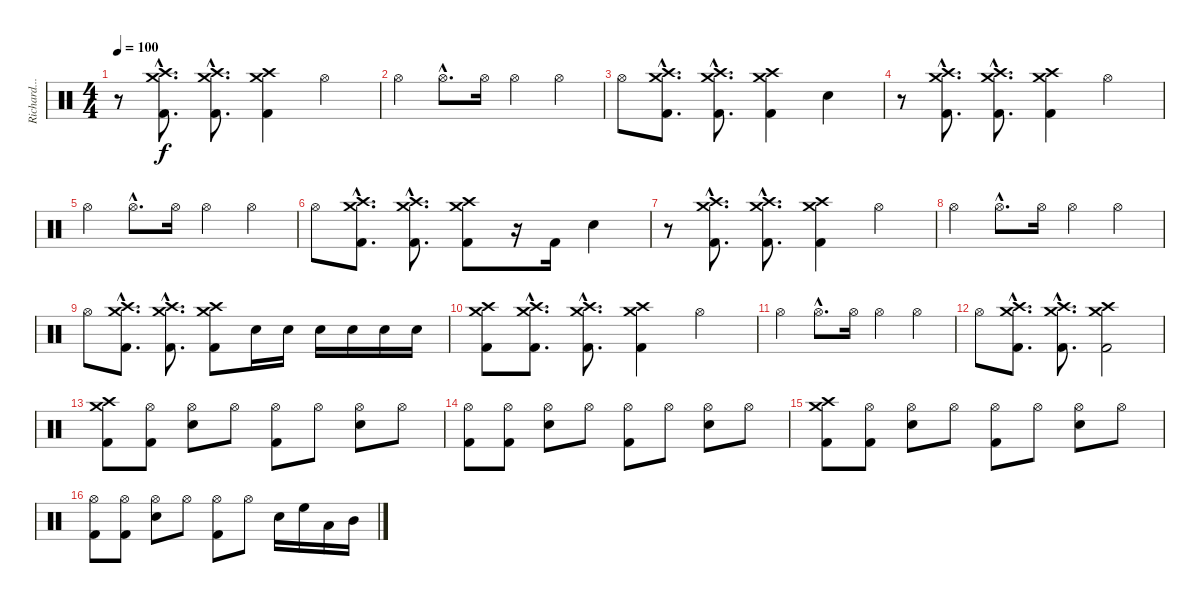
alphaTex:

\track ("Richard...clon..." "Richard...") {instrument percussion}
\staff {score}
\articulation defaults
\ts (4 4)
\tempo 100
\clef neutral
\ks c
r.8{dy f} ("Crash high (hit)"{hac} "Crash medium (hit)"{hac} "Kick (hit) 2"{hac}).8{d} ("Crash high (hit)"{hac} "Crash medium (hit)"{hac} "Kick (hit) 2"{hac}).8{d} ("Crash high (hit)" "Crash medium (hit)" "Kick (hit) 2").4 "Hi-Hat (open)".4 |
"Hi-Hat (open)".4 "Hi-Hat (open)"{hac}.8{d} "Hi-Hat (open)".16 "Hi-Hat (open)".4 "Hi-Hat (open)".4 |
"Hi-Hat (open)".8 ("Crash high (hit)"{hac} "Crash medium (hit)"{hac} "Kick (hit) 2"{hac}).8{d} ("Crash high (hit)"{hac} "Crash medium (hit)"{hac} "Kick (hit) 2"{hac}).8{d} ("Crash high (hit)" "Crash medium (hit)" "Kick (hit) 2").4 "Snare (hit) 2".4 |
r.8 ("Crash high (hit)"{hac} "Crash medium (hit)"{hac} "Kick (hit) 2"{hac}).8{d} ("Crash high (hit)"{hac} "Crash medium (hit)"{hac} "Kick (hit) 2"{hac}).8{d} ("Crash high (hit)" "Crash medium (hit)" "Kick (hit) 2").4 "Hi-Hat (open)".4 |
"Hi-Hat (open)".4 "Hi-Hat (open)"{hac}.8{d} "Hi-Hat (open)".16 "Hi-Hat (open)".4 "Hi-Hat (open)".4 |
"Hi-Hat (open)".8 ("Crash high (hit)"{hac} "Crash medium (hit)"{hac} "Kick (hit) 2"{hac}).8{d} ("Crash high (hit)"{hac} "Crash medium (hit)"{hac} "Kick (hit) 2"{hac}).8{d} ("Crash high (hit)" "Crash medium (hit)" "Kick (hit) 2").8 r.16 "Kick (hit) 2".16 "Snare (hit) 2".4 |
r.8 ("Crash high (hit)"{hac} "Crash medium (hit)"{hac} "Kick (hit) 2"{hac}).8{d} ("Crash high (hit)"{hac} "Crash medium (hit)"{hac} "Kick (hit) 2"{hac}).8{d} ("Crash high (hit)" "Crash medium (hit)" "Kick (hit) 2").4 "Hi-Hat (open)".4 |
"Hi-Hat (open)".4 "Hi-Hat (open)"{hac}.8{d} "Hi-Hat (open)".16 "Hi-Hat (open)".4 "Hi-Hat (open)".4 |
"Hi-Hat (open)".8 ("Crash high (hit)"{hac} "Crash medium (hit)"{hac} "Kick (hit) 2"{hac}).8{d} ("Crash high (hit)"{hac} "Crash medium (hit)"{hac} "Kick (hit) 2"{hac}).8{d} ("Crash high (hit)" "Crash medium (hit)" "Kick (hit) 2").8 "Snare (hit) 2".16{volume 6} "Snare (hit) 2".16{volume 9} "Snare (hit) 2".16{volume 10} "Snare (hit) 2".16{volume 12} "Snare (hit) 2".16{volume 13} "Snare (hit) 2".16{volume 15} |
("Crash medium (hit)" "Crash high (hit)" "Kick (hit) 2").8{volume 13} ("Crash high (hit)"{hac} "Crash medium (hit)"{hac} "Kick (hit) 2"{hac}).8{d} ("Crash high (hit)"{hac} "Crash medium (hit)"{hac} "Kick (hit) 2"{hac}).8{d} ("Crash high (hit)" "Crash medium (hit)" "Kick (hit) 2").4 "Hi-Hat (open)".4 |
"Hi-Hat (open)".4 "Hi-Hat (open)"{hac}.8{d} "Hi-Hat (open)".16 "Hi-Hat (open)".4 "Hi-Hat (open)".4 |
"Hi-Hat (open)".8 ("Crash high (hit)"{hac} "Crash medium (hit)"{hac} "Kick (hit) 2"{hac}).8{d} ("Crash high (hit)"{hac} "Crash medium (hit)"{hac} "Kick (hit) 2"{hac}).8{d} ("Crash high (hit)" "Crash medium (hit)" "Kick (hit) 2").2 |
("Crash medium (hit)" "Crash high (hit)" "Kick (hit) 2").8 ("Hi-Hat (open)" "Kick (hit) 2").8 ("Hi-Hat (open)" "Snare (hit) 2").8 "Hi-Hat (open)".8 ("Hi-Hat (open)" "Kick (hit) 2").8 "Hi-Hat (open)".8 ("Hi-Hat (open)" "Snare (hit) 2").8 "Hi-Hat (open)".8 |
("Hi-Hat (open)" "Kick (hit) 2").8 ("Hi-Hat (open)" "Kick (hit) 2").8 ("Hi-Hat (open)" "Snare (hit) 2").8 "Hi-Hat (open)".8 ("Hi-Hat (open)" "Kick (hit) 2").8 "Hi-Hat (open)".8 ("Hi-Hat (open)" "Snare (hit) 2").8 "Hi-Hat (open)".8 |
("Crash medium (hit)" "Crash high (hit)" "Kick (hit) 2").8 ("Hi-Hat (open)" "Kick (hit) 2").8 ("Hi-Hat (open)" "Snare (hit) 2").8 "Hi-Hat (open)".8 ("Hi-Hat (open)" "Kick (hit) 2").8 "Hi-Hat (open)".8 ("Hi-Hat (open)" "Snare (hit) 2").8 "Hi-Hat (open)".8 |
("Hi-Hat (open)" "Kick (hit) 2").8 ("Hi-Hat (open)" "Kick (hit) 2").8 ("Hi-Hat (open)" "Snare (hit) 2").8 "Hi-Hat (open)".8 ("Hi-Hat (open)" "Kick (hit) 2").8 "Hi-Hat (open)".8 "Snare (hit) 2".16 "High Floor Tom (hit)".16 "Low Tom (hit)".16 "Mid Tom (hit)".16
